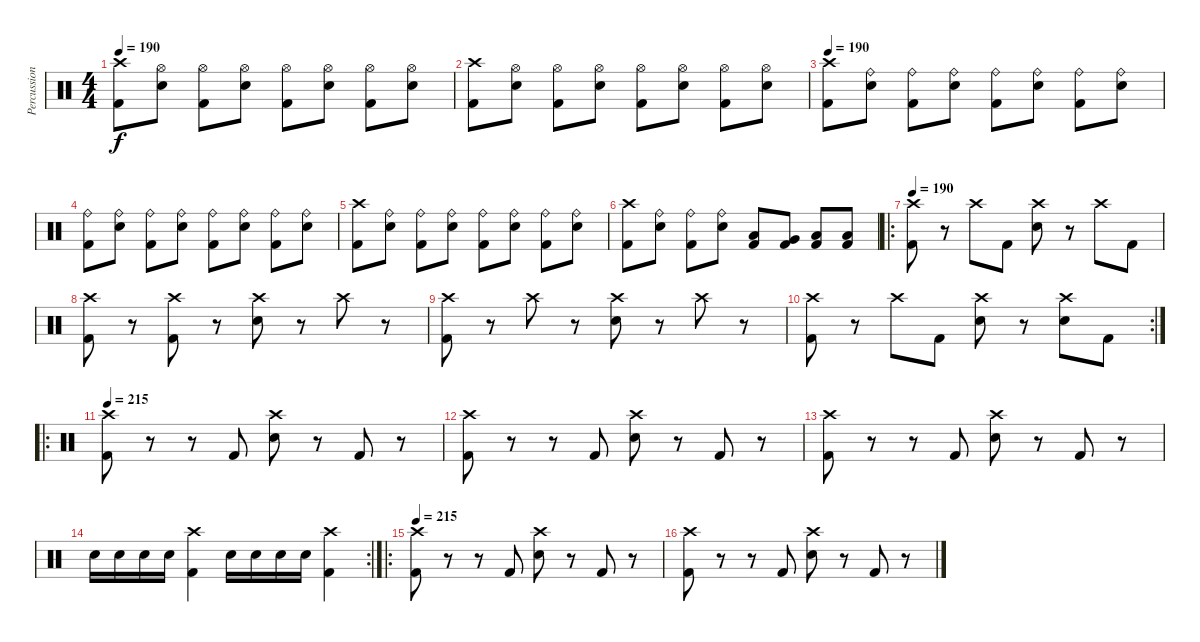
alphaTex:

\track ("Percussion" "Percussion") {instrument percussion}
\staff {score}
\articulation defaults
\ts (4 4)
\tempo 190
\clef neutral
\ks c
("Crash high (hit)" "Kick (hit) 2").8{dy f} ("Hi-Hat (open)" "Snare (hit) 2").8 ("Hi-Hat (open)" "Kick (hit) 2").8 ("Hi-Hat (open)" "Snare (hit) 2").8 ("Hi-Hat (open)" "Kick (hit) 2").8 ("Hi-Hat (open)" "Snare (hit) 2").8 ("Hi-Hat (open)" "Kick (hit) 2").8 ("Hi-Hat (open)" "Snare (hit) 2").8 |
("Crash high (hit)" "Kick (hit) 2").8 ("Hi-Hat (open)" "Snare (hit) 2").8 ("Hi-Hat (open)" "Kick (hit) 2").8 ("Hi-Hat (open)" "Snare (hit) 2").8 ("Hi-Hat (open)" "Kick (hit) 2").8 ("Hi-Hat (open)" "Snare (hit) 2").8 ("Hi-Hat (open)" "Kick (hit) 2").8 ("Hi-Hat (open)" "Snare (hit) 2").8 |
\tempo 190
("Crash high (hit)" "Kick (hit) 2").8 ("Ride (bell)" "Snare (hit) 2").8 ("Ride (bell)" "Kick (hit) 2").8 ("Ride (bell)" "Snare (hit) 2").8 ("Ride (bell)" "Kick (hit) 2").8 ("Ride (bell)" "Snare (hit) 2").8 ("Ride (bell)" "Kick (hit) 2").8 ("Ride (bell)" "Snare (hit) 2").8 |
("Ride (bell)" "Kick (hit) 2").8 ("Ride (bell)" "Snare (hit) 2").8 ("Ride (bell)" "Kick (hit) 2").8 ("Ride (bell)" "Snare (hit) 2").8 ("Ride (bell)" "Kick (hit) 2").8 ("Ride (bell)" "Snare (hit) 2").8 ("Ride (bell)" "Kick (hit) 2").8 ("Ride (bell)" "Snare (hit) 2").8 |
("Crash high (hit)" "Kick (hit) 2").8 ("Ride (bell)" "Snare (hit) 2").8 ("Ride (bell)" "Kick (hit) 2").8 ("Ride (bell)" "Snare (hit) 2").8 ("Ride (bell)" "Kick (hit) 2").8 ("Ride (bell)" "Snare (hit) 2").8 ("Ride (bell)" "Kick (hit) 2").8 ("Ride (bell)" "Snare (hit) 2").8 |
("Crash high (hit)" "Kick (hit) 2").8 ("Ride (bell)" "Snare (hit) 2").8 ("Ride (bell)" "Kick (hit) 2").8 ("Ride (bell)" "Snare (hit) 2").8 ("Low Tom (hit)" "Kick (hit) 2").8 ("Very Low Tom (hit)" "Kick (hit) 2").8 ("Low Floor Tom (hit)" "Kick (hit) 2").8 ("Low Floor Tom (hit)" "Kick (hit) 2").8 |
\ro
\tempo 190
("Crash high (hit)" "Kick (hit) 2").8 r.8 "Crash high (hit)".8 "Kick (hit) 2".8 ("Crash high (hit)" "Snare (hit) 2").8 r.8 "Crash high (hit)".8 "Kick (hit) 2".8 |
("Crash high (hit)" "Kick (hit) 2").8 r.8 ("Crash high (hit)" "Kick (hit) 2").8 r.8 ("Crash high (hit)" "Snare (hit) 2").8 r.8 "Crash high (hit)".8 r.8 |
("Crash high (hit)" "Kick (hit) 2").8 r.8 "Crash high (hit)".8 r.8 ("Crash high (hit)" "Snare (hit) 2").8 r.8 "Crash high (hit)".8 r.8 |
\rc 2
("Crash high (hit)" "Kick (hit) 2").8 r.8 "Crash high (hit)".8 "Kick (hit) 2".8 ("Crash high (hit)" "Snare (hit) 2").8 r.8 ("Crash high (hit)" "Snare (hit) 2").8 "Kick (hit) 2".8 |
\ro
\tempo 215
("Crash high (hit)" "Kick (hit) 2").8 r.8 r.8 "Kick (hit) 2".8 ("Crash high (hit)" "Snare (hit) 2").8 r.8 "Kick (hit) 2".8 r.8 |
("Crash high (hit)" "Kick (hit) 2").8 r.8 r.8 "Kick (hit) 2".8 ("Crash high (hit)" "Snare (hit) 2").8 r.8 "Kick (hit) 2".8 r.8 |
("Crash high (hit)" "Kick (hit) 2").8 r.8 r.8 "Kick (hit) 2".8 ("Crash high (hit)" "Snare (hit) 2").8 r.8 "Kick (hit) 2".8 r.8 |
\rc 2 "Snare (hit) 2".16 "Snare (hit) 2".16 "Snare (hit) 2".16 "Snare (hit) 2".16
("Crash high (hit)" "Kick (hit) 2").4 "Snare (hit) 2".16 "Snare (hit) 2".16 "Snare (hit) 2".16 "Snare (hit) 2".16 ("Crash high (hit)" "Kick (hit) 2").4 |
\ro
\tempo 215
("Crash high (hit)" "Kick (hit) 2").8 r.8 r.8 "Kick (hit) 2".8 ("Crash high (hit)" "Snare (hit) 2").8 r.8 "Kick (hit) 2".8 r.8 |
("Crash high (hit)" "Kick (hit) 2").8 r.8 r.8 "Kick (hit) 2".8 ("Crash high (hit)" "Snare (hit) 2").8 r.8 "Kick (hit) 2".8 r.8
